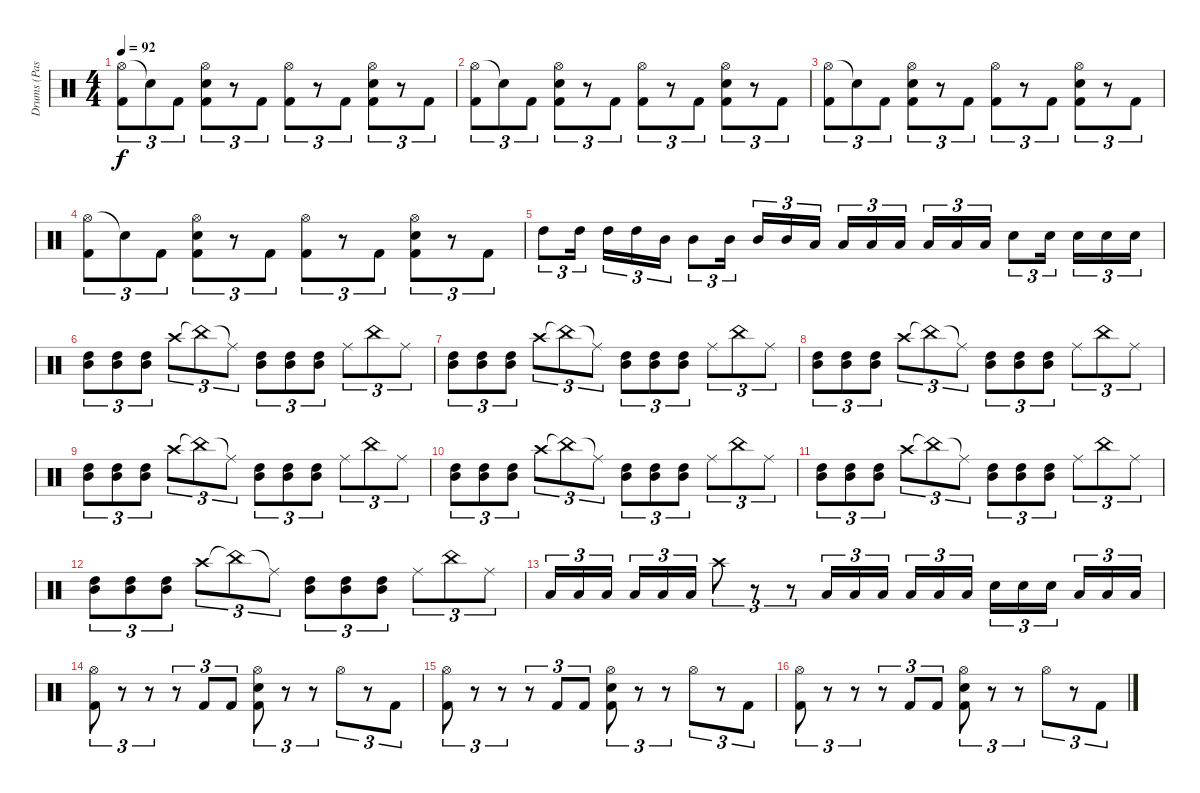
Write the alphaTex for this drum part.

\track ("Drums (Pasanen)" "Drums (Pas") {instrument percussion}
\staff {score}
\articulation defaults
\ts (4 4)
\tempo 92
\clef neutral
\ks c
("Hi-Hat (open)" "Kick (hit) 2").8{tu (3 2) dy f} "Snare (hit)"{t}.8{tu (3 2)} "Kick (hit) 2".8{tu (3 2)} ("Hi-Hat (open)" "Electric Snare (hit)" "Kick (hit) 2").8{tu (3 2)} r.8{tu (3 2)} "Kick (hit) 2".8{tu (3 2)} ("Hi-Hat (open)" "Kick (hit) 2").8{tu (3 2)} r.8{tu (3 2)} "Kick (hit) 2".8{tu (3 2)} ("Hi-Hat (open)" "Electric Snare (hit)" "Kick (hit) 2").8{tu (3 2)} r.8{tu (3 2)} "Kick (hit) 2".8{tu (3 2)} |
("Hi-Hat (open)" "Kick (hit) 2").8{tu (3 2)} "Snare (hit)"{t}.8{tu (3 2)} "Kick (hit) 2".8{tu (3 2)} ("Hi-Hat (open)" "Electric Snare (hit)" "Kick (hit) 2").8{tu (3 2)} r.8{tu (3 2)} "Kick (hit) 2".8{tu (3 2)} ("Hi-Hat (open)" "Kick (hit) 2").8{tu (3 2)} r.8{tu (3 2)} "Kick (hit) 2".8{tu (3 2)} ("Hi-Hat (open)" "Electric Snare (hit)" "Kick (hit) 2").8{tu (3 2)} r.8{tu (3 2)} "Kick (hit) 2".8{tu (3 2)} |
("Hi-Hat (open)" "Kick (hit) 2").8{tu (3 2)} "Snare (hit)"{t}.8{tu (3 2)} "Kick (hit) 2".8{tu (3 2)} ("Hi-Hat (open)" "Electric Snare (hit)" "Kick (hit) 2").8{tu (3 2)} r.8{tu (3 2)} "Kick (hit) 2".8{tu (3 2)} ("Hi-Hat (open)" "Kick (hit) 2").8{tu (3 2)} r.8{tu (3 2)} "Kick (hit) 2".8{tu (3 2)} ("Hi-Hat (open)" "Electric Snare (hit)" "Kick (hit) 2").8{tu (3 2)} r.8{tu (3 2)} "Kick (hit) 2".8{tu (3 2)} |
("Hi-Hat (open)" "Kick (hit) 2").8{tu (3 2)} "Snare (hit)"{t}.8{tu (3 2)} "Kick (hit) 2".8{tu (3 2)} ("Hi-Hat (open)" "Electric Snare (hit)" "Kick (hit) 2").8{tu (3 2)} r.8{tu (3 2)} "Kick (hit) 2".8{tu (3 2)} ("Hi-Hat (open)" "Kick (hit) 2").8{tu (3 2)} r.8{tu (3 2)} "Kick (hit) 2".8{tu (3 2)} ("Hi-Hat (open)" "Electric Snare (hit)" "Kick (hit) 2").8{tu (3 2)} r.8{tu (3 2)} "Kick (hit) 2".8{tu (3 2)} |
"High Tom (hit)".8{tu (3 2)} "High Tom (hit)".16{tu (3 2) beam splitsecondary} "High Tom (hit)".16{tu (3 2)} "High Tom (hit)".16{tu (3 2)} "Mid Tom (hit)".16{tu (3 2)} "Mid Tom (hit)".8{tu (3 2)} "Mid Tom (hit)".16{tu (3 2) beam splitsecondary} "Mid Tom (hit)".16{tu (3 2)} "Mid Tom (hit)".16{tu (3 2)} "Low Tom (hit)".16{tu (3 2)} "Low Tom (hit)".16{tu (3 2)} "Low Tom (hit)".16{tu (3 2)} "Low Tom (hit)".16{tu (3 2) beam splitsecondary} "Low Tom (hit)".16{tu (3 2)} "Low Tom (hit)".16{tu (3 2)} "Low Tom (hit)".16{tu (3 2)} "Electric Snare (hit)".8{tu (3 2)} "Electric Snare (hit)".16{tu (3 2) beam splitsecondary} "Electric Snare (hit)".16{tu (3 2)} "Electric Snare (hit)".16{tu (3 2)} "Electric Snare (hit)".16{tu (3 2)} |
("High Tom (hit)" "Mid Tom (hit)").8{tu (3 2)} ("Mid Tom (hit)" "High Tom (hit)").8{tu (3 2)} ("Mid Tom (hit)" "High Tom (hit)").8{tu (3 2)} "Crash high (hit)".8{tu (3 2)} "China (hit)"{t}.8{tu (3 2)} "Ride (middle)"{t}.8{tu (3 2)} ("High Tom (hit)" "Mid Tom (hit)").8{tu (3 2)} ("Mid Tom (hit)" "High Tom (hit)").8{tu (3 2)} ("Mid Tom (hit)" "High Tom (hit)").8{tu (3 2)} "Ride (middle)".8{tu (3 2)} "China (hit)".8{tu (3 2)} "Ride (middle)".8{tu (3 2)} |
("High Tom (hit)" "Mid Tom (hit)").8{tu (3 2)} ("Mid Tom (hit)" "High Tom (hit)").8{tu (3 2)} ("Mid Tom (hit)" "High Tom (hit)").8{tu (3 2)} "Crash high (hit)".8{tu (3 2)} "China (hit)"{t}.8{tu (3 2)} "Ride (middle)"{t}.8{tu (3 2)} ("High Tom (hit)" "Mid Tom (hit)").8{tu (3 2)} ("Mid Tom (hit)" "High Tom (hit)").8{tu (3 2)} ("Mid Tom (hit)" "High Tom (hit)").8{tu (3 2)} "Ride (middle)".8{tu (3 2)} "China (hit)".8{tu (3 2)} "Ride (middle)".8{tu (3 2)} |
("High Tom (hit)" "Mid Tom (hit)").8{tu (3 2)} ("Mid Tom (hit)" "High Tom (hit)").8{tu (3 2)} ("Mid Tom (hit)" "High Tom (hit)").8{tu (3 2)} "Crash high (hit)".8{tu (3 2)} "China (hit)"{t}.8{tu (3 2)} "Ride (middle)"{t}.8{tu (3 2)} ("High Tom (hit)" "Mid Tom (hit)").8{tu (3 2)} ("Mid Tom (hit)" "High Tom (hit)").8{tu (3 2)} ("Mid Tom (hit)" "High Tom (hit)").8{tu (3 2)} "Ride (middle)".8{tu (3 2)} "China (hit)".8{tu (3 2)} "Ride (middle)".8{tu (3 2)} |
("High Tom (hit)" "Mid Tom (hit)").8{tu (3 2)} ("Mid Tom (hit)" "High Tom (hit)").8{tu (3 2)} ("Mid Tom (hit)" "High Tom (hit)").8{tu (3 2)} "Crash high (hit)".8{tu (3 2)} "China (hit)"{t}.8{tu (3 2)} "Ride (middle)"{t}.8{tu (3 2)} ("High Tom (hit)" "Mid Tom (hit)").8{tu (3 2)} ("Mid Tom (hit)" "High Tom (hit)").8{tu (3 2)} ("Mid Tom (hit)" "High Tom (hit)").8{tu (3 2)} "Ride (middle)".8{tu (3 2)} "China (hit)".8{tu (3 2)} "Ride (middle)".8{tu (3 2)} |
("High Tom (hit)" "Mid Tom (hit)").8{tu (3 2)} ("Mid Tom (hit)" "High Tom (hit)").8{tu (3 2)} ("Mid Tom (hit)" "High Tom (hit)").8{tu (3 2)} "Crash high (hit)".8{tu (3 2)} "China (hit)"{t}.8{tu (3 2)} "Ride (middle)"{t}.8{tu (3 2)} ("High Tom (hit)" "Mid Tom (hit)").8{tu (3 2)} ("Mid Tom (hit)" "High Tom (hit)").8{tu (3 2)} ("Mid Tom (hit)" "High Tom (hit)").8{tu (3 2)} "Ride (middle)".8{tu (3 2)} "China (hit)".8{tu (3 2)} "Ride (middle)".8{tu (3 2)} |
("High Tom (hit)" "Mid Tom (hit)").8{tu (3 2)} ("Mid Tom (hit)" "High Tom (hit)").8{tu (3 2)} ("Mid Tom (hit)" "High Tom (hit)").8{tu (3 2)} "Crash high (hit)".8{tu (3 2)} "China (hit)"{t}.8{tu (3 2)} "Ride (middle)"{t}.8{tu (3 2)} ("High Tom (hit)" "Mid Tom (hit)").8{tu (3 2)} ("Mid Tom (hit)" "High Tom (hit)").8{tu (3 2)} ("Mid Tom (hit)" "High Tom (hit)").8{tu (3 2)} "Ride (middle)".8{tu (3 2)} "China (hit)".8{tu (3 2)} "Ride (middle)".8{tu (3 2)} |
("High Tom (hit)" "Mid Tom (hit)").8{tu (3 2)} ("Mid Tom (hit)" "High Tom (hit)").8{tu (3 2)} ("Mid Tom (hit)" "High Tom (hit)").8{tu (3 2)} "Crash high (hit)".8{tu (3 2)} "China (hit)"{t}.8{tu (3 2)} "Ride (middle)"{t}.8{tu (3 2)} ("High Tom (hit)" "Mid Tom (hit)").8{tu (3 2)} ("Mid Tom (hit)" "High Tom (hit)").8{tu (3 2)} ("Mid Tom (hit)" "High Tom (hit)").8{tu (3 2)} "Ride (middle)".8{tu (3 2)} "China (hit)".8{tu (3 2)} "Ride (middle)".8{tu (3 2)} |
"Low Tom (hit)".16{tu (3 2)} "Low Tom (hit)".16{tu (3 2)} "Low Tom (hit)".16{tu (3 2) beam splitsecondary} "Low Tom (hit)".16{tu (3 2)} "Low Tom (hit)".16{tu (3 2)} "Low Tom (hit)".16{tu (3 2)} "Crash high (hit)".8{tu (3 2)} r.8{tu (3 2)} r.8{tu (3 2)} "Low Tom (hit)".16{tu (3 2)} "Low Tom (hit)".16{tu (3 2)} "Low Tom (hit)".16{tu (3 2) beam splitsecondary} "Low Tom (hit)".16{tu (3 2)} "Low Tom (hit)".16{tu (3 2)} "Low Tom (hit)".16{tu (3 2)} "Electric Snare (hit)".16{tu (3 2)} "Electric Snare (hit)".16{tu (3 2)} "Electric Snare (hit)".16{tu (3 2) beam splitsecondary} "Low Tom (hit)".16{tu (3 2)} "Low Tom (hit)".16{tu (3 2)} "Low Tom (hit)".16{tu (3 2)} |
("Hi-Hat (open)" "Kick (hit) 2").8{tu (3 2)} r.8{tu (3 2)} r.8{tu (3 2)} r.8{tu (3 2)} "Kick (hit) 2".8{tu (3 2)} "Kick (hit) 2".8{tu (3 2)} ("Hi-Hat (open)" "Electric Snare (hit)" "Kick (hit) 2").8{tu (3 2)} r.8{tu (3 2)} r.8{tu (3 2)} "Hi-Hat (open)".8{tu (3 2)} r.8{tu (3 2)} "Kick (hit) 2".8{tu (3 2)} |
("Hi-Hat (open)" "Kick (hit) 2").8{tu (3 2)} r.8{tu (3 2)} r.8{tu (3 2)} r.8{tu (3 2)} "Kick (hit) 2".8{tu (3 2)} "Kick (hit) 2".8{tu (3 2)} ("Hi-Hat (open)" "Electric Snare (hit)" "Kick (hit) 2").8{tu (3 2)} r.8{tu (3 2)} r.8{tu (3 2)} "Hi-Hat (open)".8{tu (3 2)} r.8{tu (3 2)} "Kick (hit) 2".8{tu (3 2)} |
("Hi-Hat (open)" "Kick (hit) 2").8{tu (3 2)} r.8{tu (3 2)} r.8{tu (3 2)} r.8{tu (3 2)} "Kick (hit) 2".8{tu (3 2)} "Kick (hit) 2".8{tu (3 2)} ("Hi-Hat (open)" "Electric Snare (hit)" "Kick (hit) 2").8{tu (3 2)} r.8{tu (3 2)} r.8{tu (3 2)} "Hi-Hat (open)".8{tu (3 2)} r.8{tu (3 2)} "Kick (hit) 2".8{tu (3 2)}
